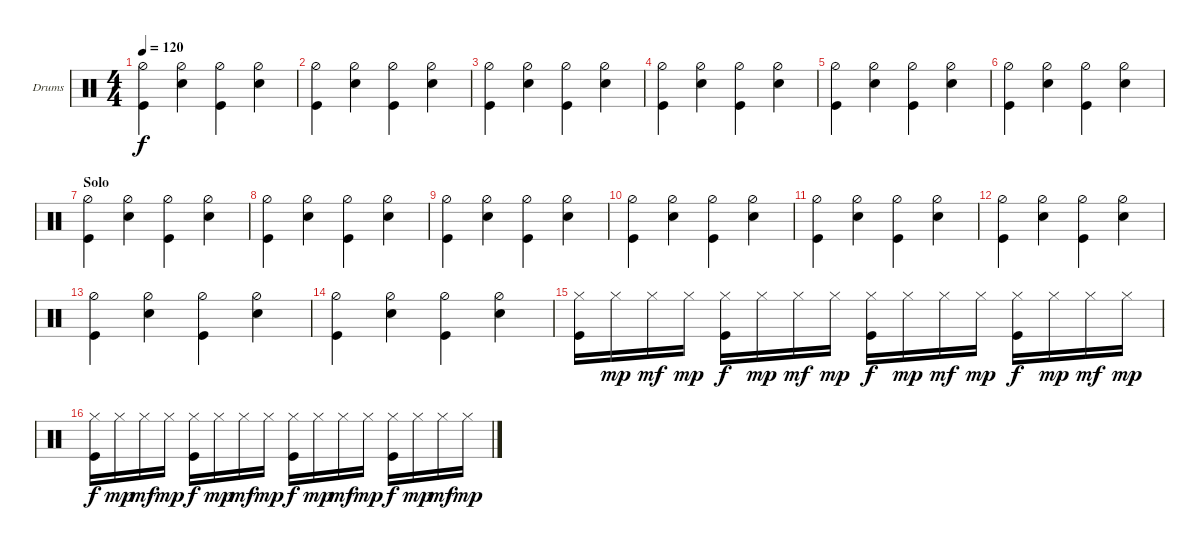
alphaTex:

\defaultSystemsLayout 4
\bracketExtendMode groupsimilarinstruments
\firstSystemTrackNameOrientation horizontal
\otherSystemsTrackNameOrientation horizontal
\track ("Drumkit" "Drums") {instrument percussion}
\staff {score}
\articulation defaults
\ts (4 4)
\tempo 120
\clef neutral
\ks c
("Kick (hit)" "Hi-Hat (half)").4{dy f} ("Snare (hit) 2" "Hi-Hat (half)").4 ("Kick (hit)" "Hi-Hat (half)").4 ("Snare (hit) 2" "Hi-Hat (half)").4 |
("Kick (hit)" "Hi-Hat (half)").4 ("Snare (hit) 2" "Hi-Hat (half)").4 ("Kick (hit)" "Hi-Hat (half)").4 ("Snare (hit) 2" "Hi-Hat (half)").4 |
("Kick (hit)" "Hi-Hat (half)").4 ("Snare (hit) 2" "Hi-Hat (half)").4 ("Kick (hit)" "Hi-Hat (half)").4 ("Snare (hit) 2" "Hi-Hat (half)").4 |
("Kick (hit)" "Hi-Hat (half)").4 ("Snare (hit) 2" "Hi-Hat (half)").4 ("Kick (hit)" "Hi-Hat (half)").4 ("Snare (hit) 2" "Hi-Hat (half)").4 |
("Kick (hit)" "Hi-Hat (half)").4 ("Snare (hit) 2" "Hi-Hat (half)").4 ("Kick (hit)" "Hi-Hat (half)").4 ("Snare (hit) 2" "Hi-Hat (half)").4 |
("Kick (hit)" "Hi-Hat (half)").4 ("Snare (hit) 2" "Hi-Hat (half)").4 ("Kick (hit)" "Hi-Hat (half)").4 ("Snare (hit) 2" "Hi-Hat (half)").4 |
\section ("" "Solo")
("Kick (hit)" "Hi-Hat (half)").4 ("Snare (hit) 2" "Hi-Hat (half)").4 ("Kick (hit)" "Hi-Hat (half)").4 ("Snare (hit) 2" "Hi-Hat (half)").4 |
("Kick (hit)" "Hi-Hat (half)").4 ("Snare (hit) 2" "Hi-Hat (half)").4 ("Kick (hit)" "Hi-Hat (half)").4 ("Snare (hit) 2" "Hi-Hat (half)").4 |
("Kick (hit)" "Hi-Hat (half)").4 ("Snare (hit) 2" "Hi-Hat (half)").4 ("Kick (hit)" "Hi-Hat (half)").4 ("Snare (hit) 2" "Hi-Hat (half)").4 |
("Kick (hit)" "Hi-Hat (half)").4 ("Snare (hit) 2" "Hi-Hat (half)").4 ("Kick (hit)" "Hi-Hat (half)").4 ("Snare (hit) 2" "Hi-Hat (half)").4 |
("Kick (hit)" "Hi-Hat (half)").4 ("Snare (hit) 2" "Hi-Hat (half)").4 ("Kick (hit)" "Hi-Hat (half)").4 ("Snare (hit) 2" "Hi-Hat (half)").4 |
("Kick (hit)" "Hi-Hat (half)").4 ("Snare (hit) 2" "Hi-Hat (half)").4 ("Kick (hit)" "Hi-Hat (half)").4 ("Snare (hit) 2" "Hi-Hat (half)").4 |
("Kick (hit)" "Hi-Hat (half)").4 ("Snare (hit) 2" "Hi-Hat (half)").4 ("Kick (hit)" "Hi-Hat (half)").4 ("Snare (hit) 2" "Hi-Hat (half)").4 |
("Kick (hit)" "Hi-Hat (half)").4 ("Snare (hit) 2" "Hi-Hat (half)").4 ("Kick (hit)" "Hi-Hat (half)").4 ("Snare (hit) 2" "Hi-Hat (half)").4 |
("Kick (hit)" "Hi-Hat (closed)").16 "Hi-Hat (closed)".16{dy mp} "Hi-Hat (closed)".16{dy mf} "Hi-Hat (closed)".16{dy mp} ("Kick (hit)" "Hi-Hat (closed)").16{dy f} "Hi-Hat (closed)".16{dy mp} "Hi-Hat (closed)".16{dy mf} "Hi-Hat (closed)".16{dy mp} ("Kick (hit)" "Hi-Hat (closed)").16{dy f} "Hi-Hat (closed)".16{dy mp} "Hi-Hat (closed)".16{dy mf} "Hi-Hat (closed)".16{dy mp} ("Kick (hit)" "Hi-Hat (closed)").16{dy f} "Hi-Hat (closed)".16{dy mp} "Hi-Hat (closed)".16{dy mf} "Hi-Hat (closed)".16{dy mp} |
("Kick (hit)" "Hi-Hat (closed)").16{dy f} "Hi-Hat (closed)".16{dy mp} "Hi-Hat (closed)".16{dy mf} "Hi-Hat (closed)".16{dy mp} ("Kick (hit)" "Hi-Hat (closed)").16{dy f} "Hi-Hat (closed)".16{dy mp} "Hi-Hat (closed)".16{dy mf} "Hi-Hat (closed)".16{dy mp} ("Kick (hit)" "Hi-Hat (closed)").16{dy f} "Hi-Hat (closed)".16{dy mp} "Hi-Hat (closed)".16{dy mf} "Hi-Hat (closed)".16{dy mp} ("Kick (hit)" "Hi-Hat (closed)").16{dy f} "Hi-Hat (closed)".16{dy mp} "Hi-Hat (closed)".16{dy mf} "Hi-Hat (closed)".16{dy mp}
